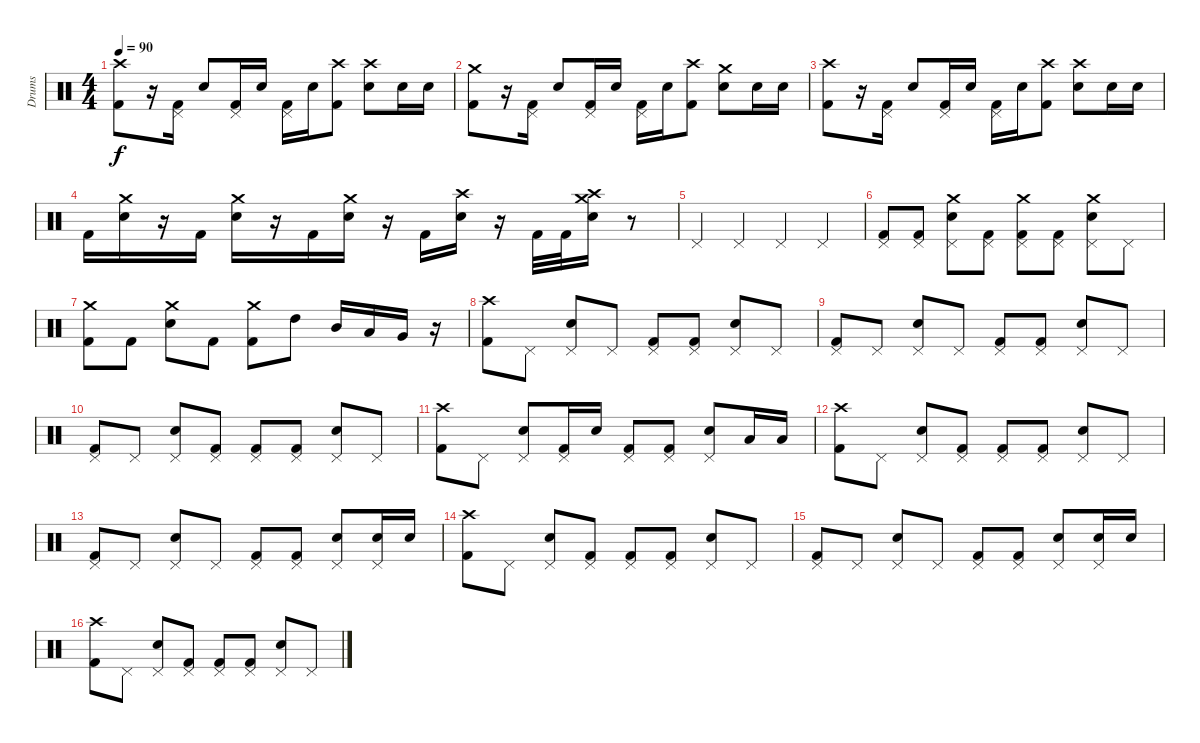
\track ("Drums" "Drums") {instrument percussion}
\staff {score}
\articulation defaults
\ts (4 4)
\tempo 90
\clef neutral
\ks c
("Crash high (hit)" "Kick (hit) 2").8{dy f} r.16 ("Pedal Hi-Hat (hit)" "Kick (hit) 2").16 "Snare (hit) 2".8 ("Pedal Hi-Hat (hit)" "Kick (hit) 2").16 "Snare (hit) 2".16 ("Pedal Hi-Hat (hit)" "Kick (hit) 2").16 "Snare (hit) 2".16 ("Crash high (hit)" "Kick (hit) 2").8 ("Crash high (hit)" "Snare (hit) 2").8 "Snare (hit) 2".16 "Snare (hit) 2".16 |
("Crash medium (hit)" "Kick (hit) 2").8 r.16 ("Pedal Hi-Hat (hit)" "Kick (hit) 2").16 "Snare (hit) 2".8 ("Pedal Hi-Hat (hit)" "Kick (hit) 2").16 "Snare (hit) 2".16 ("Pedal Hi-Hat (hit)" "Kick (hit) 2").16 "Snare (hit) 2".16 ("Crash high (hit)" "Kick (hit) 2").8 ("Crash medium (hit)" "Snare (hit) 2").8 "Snare (hit) 2".16 "Snare (hit) 2".16 |
("Crash high (hit)" "Kick (hit) 2").8 r.16 ("Pedal Hi-Hat (hit)" "Kick (hit) 2").16 "Snare (hit) 2".8 ("Pedal Hi-Hat (hit)" "Kick (hit) 2").16 "Snare (hit) 2".16 ("Pedal Hi-Hat (hit)" "Kick (hit) 2").16 "Snare (hit) 2".16 ("Crash high (hit)" "Kick (hit) 2").8 ("Crash high (hit)" "Snare (hit) 2").8 "Snare (hit) 2".16 "Snare (hit) 2".16 |
"Kick (hit) 2".16 ("Crash medium (hit)" "Snare (hit) 2").16 r.16 "Kick (hit) 2".16 ("Crash medium (hit)" "Snare (hit) 2").16 r.16 "Kick (hit) 2".16 ("Crash medium (hit)" "Snare (hit) 2").16 r.16 "Kick (hit) 2".16 ("Crash high (hit)" "Snare (hit) 2").16 r.16 "Kick (hit) 2".32 "Kick (hit) 2".32 ("Crash medium (hit)" "Snare (hit) 2" "Crash high (hit)").16 r.8 |
"Pedal Hi-Hat (hit)".4 "Pedal Hi-Hat (hit)".4 "Pedal Hi-Hat (hit)".4 "Pedal Hi-Hat (hit)".4 |
("Pedal Hi-Hat (hit)" "Kick (hit) 2").8 ("Pedal Hi-Hat (hit)" "Kick (hit) 2").8 ("Crash medium (hit)" "Pedal Hi-Hat (hit)" "Snare (hit) 2").8 ("Pedal Hi-Hat (hit)" "Kick (hit) 2").8 ("Crash medium (hit)" "Pedal Hi-Hat (hit)" "Kick (hit) 2").8 ("Pedal Hi-Hat (hit)" "Kick (hit) 2").8 ("Crash medium (hit)" "Pedal Hi-Hat (hit)" "Snare (hit) 2").8 "Pedal Hi-Hat (hit)".8 |
("Crash medium (hit)" "Kick (hit) 2").8 "Kick (hit) 2".8 ("Crash medium (hit)" "Snare (hit) 2").8 "Kick (hit) 2".8 ("Crash medium (hit)" "Kick (hit) 2").8 "High Tom (hit)".8 "Mid Tom (hit)".16 "Low Tom (hit)".16 "Very Low Tom (hit)".16 r.16 |
("Crash high (hit)" "Kick (hit) 2").8 "Pedal Hi-Hat (hit)".8 ("Pedal Hi-Hat (hit)" "Snare (hit) 2").8 "Pedal Hi-Hat (hit)".8 ("Pedal Hi-Hat (hit)" "Kick (hit) 2").8 ("Pedal Hi-Hat (hit)" "Kick (hit) 2").8 ("Pedal Hi-Hat (hit)" "Snare (hit) 2").8 "Pedal Hi-Hat (hit)".8 |
("Pedal Hi-Hat (hit)" "Kick (hit) 2").8 "Pedal Hi-Hat (hit)".8 ("Pedal Hi-Hat (hit)" "Snare (hit) 2").8 "Pedal Hi-Hat (hit)".8 ("Pedal Hi-Hat (hit)" "Kick (hit) 2").8 ("Pedal Hi-Hat (hit)" "Kick (hit) 2").8 ("Pedal Hi-Hat (hit)" "Snare (hit) 2").8 "Pedal Hi-Hat (hit)".8 |
("Pedal Hi-Hat (hit)" "Kick (hit) 2").8 "Pedal Hi-Hat (hit)".8 ("Pedal Hi-Hat (hit)" "Snare (hit) 2").8 ("Pedal Hi-Hat (hit)" "Kick (hit) 2").8 ("Pedal Hi-Hat (hit)" "Kick (hit) 2").8 ("Pedal Hi-Hat (hit)" "Kick (hit) 2").8 ("Pedal Hi-Hat (hit)" "Snare (hit) 2").8 "Pedal Hi-Hat (hit)".8 |
("Crash high (hit)" "Kick (hit) 2").8 "Pedal Hi-Hat (hit)".8 ("Pedal Hi-Hat (hit)" "Snare (hit) 2").8 ("Pedal Hi-Hat (hit)" "Kick (hit) 2").16 "Snare (hit) 2".16 ("Pedal Hi-Hat (hit)" "Kick (hit) 2").8 ("Pedal Hi-Hat (hit)" "Kick (hit) 2").8 ("Pedal Hi-Hat (hit)" "Snare (hit) 2").8 "Low Tom (hit)".16 "Low Tom (hit)".16 |
("Crash high (hit)" "Kick (hit) 2").8 "Pedal Hi-Hat (hit)".8 ("Pedal Hi-Hat (hit)" "Snare (hit) 2").8 ("Pedal Hi-Hat (hit)" "Kick (hit) 2").8 ("Pedal Hi-Hat (hit)" "Kick (hit) 2").8 ("Pedal Hi-Hat (hit)" "Kick (hit) 2").8 ("Pedal Hi-Hat (hit)" "Snare (hit) 2").8 "Pedal Hi-Hat (hit)".8 |
("Pedal Hi-Hat (hit)" "Kick (hit) 2").8 "Pedal Hi-Hat (hit)".8 ("Pedal Hi-Hat (hit)" "Snare (hit) 2").8 "Pedal Hi-Hat (hit)".8 ("Pedal Hi-Hat (hit)" "Kick (hit) 2").8 ("Pedal Hi-Hat (hit)" "Kick (hit) 2").8 ("Pedal Hi-Hat (hit)" "Snare (hit) 2").8 ("Pedal Hi-Hat (hit)" "Snare (hit) 2").16 "Snare (hit) 2".16 |
("Crash high (hit)" "Kick (hit) 2").8 "Pedal Hi-Hat (hit)".8 ("Pedal Hi-Hat (hit)" "Snare (hit) 2").8 ("Pedal Hi-Hat (hit)" "Kick (hit) 2").8 ("Pedal Hi-Hat (hit)" "Kick (hit) 2").8 ("Pedal Hi-Hat (hit)" "Kick (hit) 2").8 ("Pedal Hi-Hat (hit)" "Snare (hit) 2").8 "Pedal Hi-Hat (hit)".8 |
("Pedal Hi-Hat (hit)" "Kick (hit) 2").8 "Pedal Hi-Hat (hit)".8 ("Pedal Hi-Hat (hit)" "Snare (hit) 2").8 "Pedal Hi-Hat (hit)".8 ("Pedal Hi-Hat (hit)" "Kick (hit) 2").8 ("Pedal Hi-Hat (hit)" "Kick (hit) 2").8 ("Pedal Hi-Hat (hit)" "Snare (hit) 2").8 ("Pedal Hi-Hat (hit)" "Snare (hit) 2").16 "Snare (hit) 2".16 |
("Crash high (hit)" "Kick (hit) 2").8 "Pedal Hi-Hat (hit)".8 ("Pedal Hi-Hat (hit)" "Snare (hit) 2").8 ("Pedal Hi-Hat (hit)" "Kick (hit) 2").8 ("Pedal Hi-Hat (hit)" "Kick (hit) 2").8 ("Pedal Hi-Hat (hit)" "Kick (hit) 2").8 ("Pedal Hi-Hat (hit)" "Snare (hit) 2").8 "Pedal Hi-Hat (hit)".8
